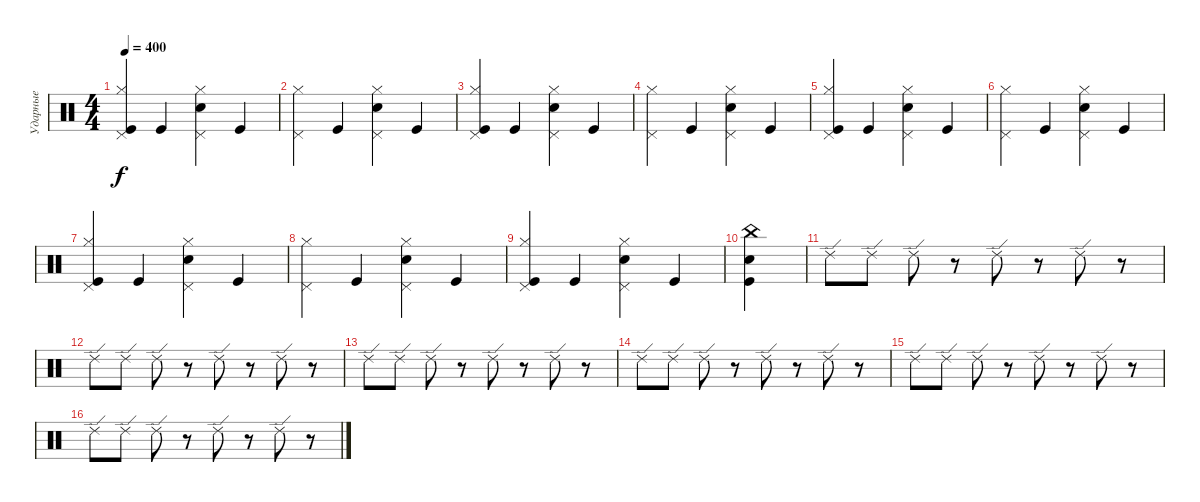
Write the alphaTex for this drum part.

\track ("Ударные" "Ударные") {instrument percussion}
\staff {score}
\articulation defaults
\ts (4 4)
\tempo 400
\clef neutral
\ks c
("Kick (hit)" "Hi-Hat (closed)" "Pedal Hi-Hat (hit)").4{dy f} "Kick (hit)".4 ("Electric Snare (hit)" "Pedal Hi-Hat (hit)" "Hi-Hat (closed)").4 "Kick (hit)".4 |
("Hi-Hat (closed)" "Pedal Hi-Hat (hit)").4 "Kick (hit)".4 ("Electric Snare (hit)" "Pedal Hi-Hat (hit)" "Hi-Hat (closed)").4 "Kick (hit)".4 |
("Kick (hit)" "Hi-Hat (closed)" "Pedal Hi-Hat (hit)").4 "Kick (hit)".4 ("Electric Snare (hit)" "Pedal Hi-Hat (hit)" "Hi-Hat (closed)").4 "Kick (hit)".4 |
("Hi-Hat (closed)" "Pedal Hi-Hat (hit)").4 "Kick (hit)".4 ("Electric Snare (hit)" "Pedal Hi-Hat (hit)" "Hi-Hat (closed)").4 "Kick (hit)".4 |
("Kick (hit)" "Hi-Hat (closed)" "Pedal Hi-Hat (hit)").4 "Kick (hit)".4 ("Electric Snare (hit)" "Pedal Hi-Hat (hit)" "Hi-Hat (closed)").4 "Kick (hit)".4 |
("Hi-Hat (closed)" "Pedal Hi-Hat (hit)").4 "Kick (hit)".4 ("Electric Snare (hit)" "Pedal Hi-Hat (hit)" "Hi-Hat (closed)").4 "Kick (hit)".4 |
("Kick (hit)" "Hi-Hat (closed)" "Pedal Hi-Hat (hit)").4 "Kick (hit)".4 ("Electric Snare (hit)" "Pedal Hi-Hat (hit)" "Hi-Hat (closed)").4 "Kick (hit)".4 |
("Hi-Hat (closed)" "Pedal Hi-Hat (hit)").4 "Kick (hit)".4 ("Electric Snare (hit)" "Pedal Hi-Hat (hit)" "Hi-Hat (closed)").4 "Kick (hit)".4 |
("Kick (hit)" "Hi-Hat (closed)" "Pedal Hi-Hat (hit)").4 "Kick (hit)".4 ("Electric Snare (hit)" "Pedal Hi-Hat (hit)" "Hi-Hat (closed)").4 "Kick (hit)".4 |
("Electric Snare (hit)" "Kick (hit)" "China (hit)").4 |
"Ride (edge) 2".8 "Ride (edge) 2".8 "Ride (edge) 2".8 r.8 "Ride (edge) 2".8 r.8 "Ride (edge) 2".8 r.8 |
"Ride (edge) 2".8 "Ride (edge) 2".8 "Ride (edge) 2".8 r.8 "Ride (edge) 2".8 r.8 "Ride (edge) 2".8 r.8 |
"Ride (edge) 2".8 "Ride (edge) 2".8 "Ride (edge) 2".8 r.8 "Ride (edge) 2".8 r.8 "Ride (edge) 2".8 r.8 |
"Ride (edge) 2".8 "Ride (edge) 2".8 "Ride (edge) 2".8 r.8 "Ride (edge) 2".8 r.8 "Ride (edge) 2".8 r.8 |
"Ride (edge) 2".8 "Ride (edge) 2".8 "Ride (edge) 2".8 r.8 "Ride (edge) 2".8 r.8 "Ride (edge) 2".8 r.8 |
"Ride (edge) 2".8 "Ride (edge) 2".8 "Ride (edge) 2".8 r.8 "Ride (edge) 2".8 r.8 "Ride (edge) 2".8 r.8
